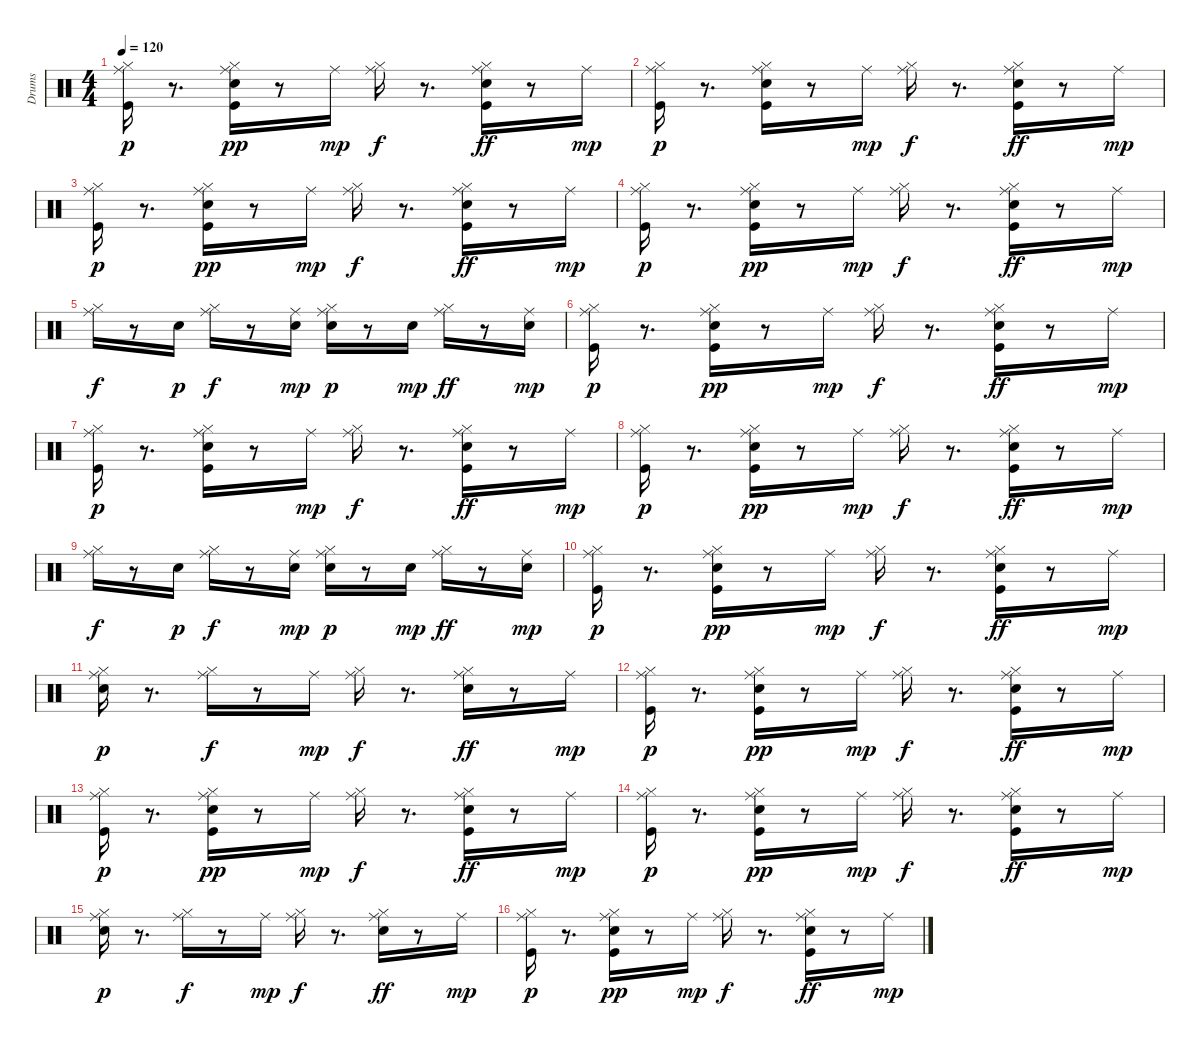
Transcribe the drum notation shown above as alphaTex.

\track ("Drums" "Drums") {instrument percussion}
\staff {score}
\articulation defaults
\ts (4 4)
\tempo 120
\clef neutral
\ks c
("Kick (hit)" "Hi-Hat (closed)" "Ride (middle)").16{dy p} r.8{d} ("Kick (hit)" "Snare (hit) 2" "Hi-Hat (closed)" "Ride (middle)").16{dy pp} r.8 "Ride (middle)".16{dy mp} ("Hi-Hat (closed)" "Ride (middle)").16{dy f} r.8{d} ("Kick (hit)" "Snare (hit) 2" "Hi-Hat (closed)" "Ride (middle)").16{dy ff} r.8 "Ride (middle)".16{dy mp} |
("Kick (hit)" "Hi-Hat (closed)" "Ride (middle)").16{dy p} r.8{d} ("Kick (hit)" "Snare (hit) 2" "Hi-Hat (closed)" "Ride (middle)").16 r.8 "Ride (middle)".16{dy mp} ("Hi-Hat (closed)" "Ride (middle)").16{dy f} r.8{d} ("Kick (hit)" "Snare (hit) 2" "Hi-Hat (closed)" "Ride (middle)").16{dy ff} r.8 "Ride (middle)".16{dy mp} |
("Kick (hit)" "Hi-Hat (closed)" "Ride (middle)").16{dy p} r.8{d} ("Kick (hit)" "Snare (hit) 2" "Hi-Hat (closed)" "Ride (middle)").16{dy pp} r.8 "Ride (middle)".16{dy mp} ("Hi-Hat (closed)" "Ride (middle)").16{dy f} r.8{d} ("Kick (hit)" "Snare (hit) 2" "Hi-Hat (closed)" "Ride (middle)").16{dy ff} r.8 "Ride (middle)".16{dy mp} |
("Kick (hit)" "Hi-Hat (closed)" "Ride (middle)").16{dy p} r.8{d} ("Kick (hit)" "Snare (hit) 2" "Hi-Hat (closed)" "Ride (middle)").16{dy pp} r.8 "Ride (middle)".16{dy mp} ("Hi-Hat (closed)" "Ride (middle)").16{dy f} r.8{d} ("Kick (hit)" "Snare (hit) 2" "Hi-Hat (closed)" "Ride (middle)").16{dy ff} r.8 "Ride (middle)".16{dy mp} |
("Hi-Hat (closed)" "Ride (middle)").16{dy f} r.8 "Snare (hit) 2".16{dy p} ("Hi-Hat (closed)" "Ride (middle)").16{dy f} r.8 ("Snare (hit) 2" "Ride (middle)").16{dy mp} ("Snare (hit) 2" "Hi-Hat (closed)" "Ride (middle)").16{dy p} r.8 "Snare (hit) 2".16{dy mp} ("Hi-Hat (closed)" "Ride (middle)").16{dy ff} r.8 ("Snare (hit) 2" "Ride (middle)").16{dy mp} |
("Kick (hit)" "Hi-Hat (closed)" "Ride (middle)").16{dy p} r.8{d} ("Kick (hit)" "Snare (hit) 2" "Hi-Hat (closed)" "Ride (middle)").16{dy pp} r.8 "Ride (middle)".16{dy mp} ("Hi-Hat (closed)" "Ride (middle)").16{dy f} r.8{d} ("Kick (hit)" "Snare (hit) 2" "Hi-Hat (closed)" "Ride (middle)").16{dy ff} r.8 "Ride (middle)".16{dy mp} |
("Kick (hit)" "Hi-Hat (closed)" "Ride (middle)").16{dy p} r.8{d} ("Kick (hit)" "Snare (hit) 2" "Hi-Hat (closed)" "Ride (middle)").16 r.8 "Ride (middle)".16{dy mp} ("Hi-Hat (closed)" "Ride (middle)").16{dy f} r.8{d} ("Kick (hit)" "Snare (hit) 2" "Hi-Hat (closed)" "Ride (middle)").16{dy ff} r.8 "Ride (middle)".16{dy mp} |
("Kick (hit)" "Hi-Hat (closed)" "Ride (middle)").16{dy p} r.8{d} ("Kick (hit)" "Snare (hit) 2" "Hi-Hat (closed)" "Ride (middle)").16{dy pp} r.8 "Ride (middle)".16{dy mp} ("Hi-Hat (closed)" "Ride (middle)").16{dy f} r.8{d} ("Kick (hit)" "Snare (hit) 2" "Hi-Hat (closed)" "Ride (middle)").16{dy ff} r.8 "Ride (middle)".16{dy mp} |
("Hi-Hat (closed)" "Ride (middle)").16{dy f} r.8 "Snare (hit) 2".16{dy p} ("Hi-Hat (closed)" "Ride (middle)").16{dy f} r.8 ("Snare (hit) 2" "Ride (middle)").16{dy mp} ("Snare (hit) 2" "Hi-Hat (closed)" "Ride (middle)").16{dy p} r.8 "Snare (hit) 2".16{dy mp} ("Hi-Hat (closed)" "Ride (middle)").16{dy ff} r.8 ("Snare (hit) 2" "Ride (middle)").16{dy mp} |
("Kick (hit)" "Hi-Hat (closed)" "Ride (middle)").16{dy p} r.8{d} ("Kick (hit)" "Snare (hit) 2" "Hi-Hat (closed)" "Ride (middle)").16{dy pp} r.8 "Ride (middle)".16{dy mp} ("Hi-Hat (closed)" "Ride (middle)").16{dy f} r.8{d} ("Kick (hit)" "Snare (hit) 2" "Hi-Hat (closed)" "Ride (middle)").16{dy ff} r.8 "Ride (middle)".16{dy mp} |
("Snare (hit) 2" "Hi-Hat (closed)" "Ride (middle)").16{dy p} r.8{d} ("Hi-Hat (closed)" "Ride (middle)").16{dy f} r.8 "Ride (middle)".16{dy mp} ("Hi-Hat (closed)" "Ride (middle)").16{dy f} r.8{d} ("Snare (hit) 2" "Hi-Hat (closed)" "Ride (middle)").16{dy ff} r.8 "Ride (middle)".16{dy mp} |
("Kick (hit)" "Hi-Hat (closed)" "Ride (middle)").16{dy p} r.8{d} ("Kick (hit)" "Snare (hit) 2" "Hi-Hat (closed)" "Ride (middle)").16{dy pp} r.8 "Ride (middle)".16{dy mp} ("Hi-Hat (closed)" "Ride (middle)").16{dy f} r.8{d} ("Kick (hit)" "Snare (hit) 2" "Hi-Hat (closed)" "Ride (middle)").16{dy ff} r.8 "Ride (middle)".16{dy mp} |
("Kick (hit)" "Hi-Hat (closed)" "Ride (middle)").16{dy p} r.8{d} ("Kick (hit)" "Snare (hit) 2" "Hi-Hat (closed)" "Ride (middle)").16{dy pp} r.8 "Ride (middle)".16{dy mp} ("Hi-Hat (closed)" "Ride (middle)").16{dy f} r.8{d} ("Kick (hit)" "Snare (hit) 2" "Hi-Hat (closed)" "Ride (middle)").16{dy ff} r.8 "Ride (middle)".16{dy mp} |
("Kick (hit)" "Hi-Hat (closed)" "Ride (middle)").16{dy p} r.8{d} ("Kick (hit)" "Snare (hit) 2" "Hi-Hat (closed)" "Ride (middle)").16{dy pp} r.8 "Ride (middle)".16{dy mp} ("Hi-Hat (closed)" "Ride (middle)").16{dy f} r.8{d} ("Kick (hit)" "Snare (hit) 2" "Hi-Hat (closed)" "Ride (middle)").16{dy ff} r.8 "Ride (middle)".16{dy mp} |
("Snare (hit) 2" "Hi-Hat (closed)" "Ride (middle)").16{dy p} r.8{d} ("Hi-Hat (closed)" "Ride (middle)").16{dy f} r.8 "Ride (middle)".16{dy mp} ("Hi-Hat (closed)" "Ride (middle)").16{dy f} r.8{d} ("Snare (hit) 2" "Hi-Hat (closed)" "Ride (middle)").16{dy ff} r.8 "Ride (middle)".16{dy mp} |
("Kick (hit)" "Hi-Hat (closed)" "Ride (middle)").16{dy p} r.8{d} ("Kick (hit)" "Snare (hit) 2" "Hi-Hat (closed)" "Ride (middle)").16{dy pp} r.8 "Ride (middle)".16{dy mp} ("Hi-Hat (closed)" "Ride (middle)").16{dy f} r.8{d} ("Kick (hit)" "Snare (hit) 2" "Hi-Hat (closed)" "Ride (middle)").16{dy ff} r.8 "Ride (middle)".16{dy mp}
